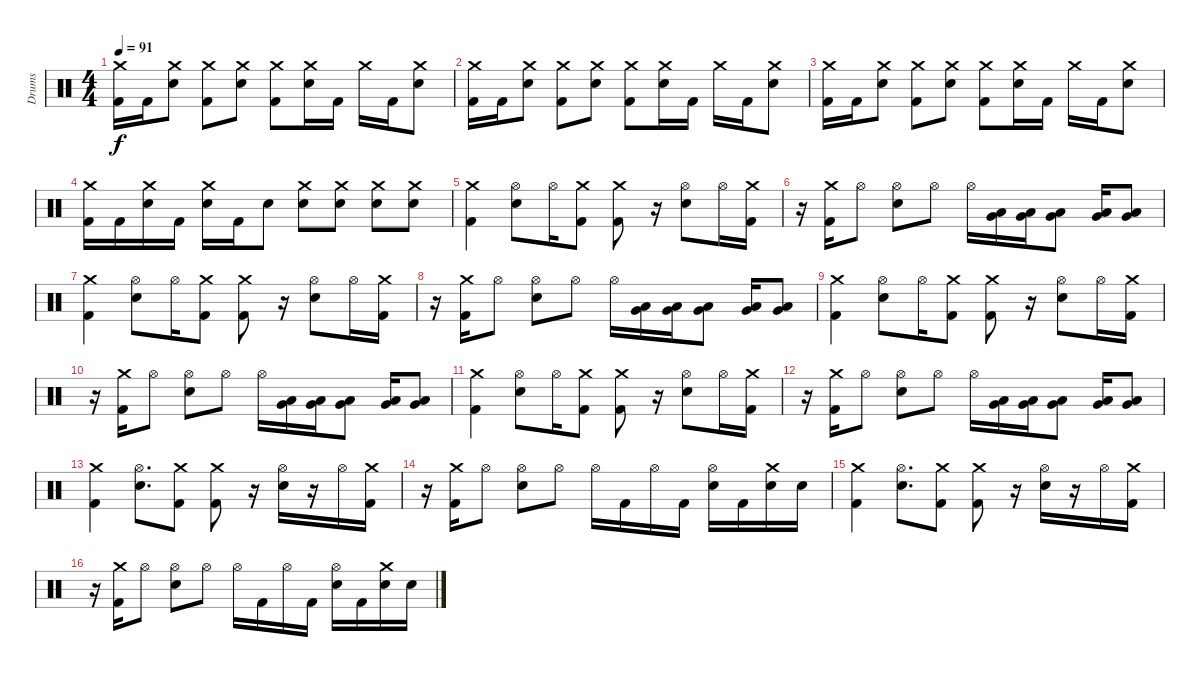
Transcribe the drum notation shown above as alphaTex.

\track ("Drums" "Drums") {instrument percussion}
\staff {score}
\articulation defaults
\ts (4 4)
\tempo 91
\clef neutral
\ks c
("Crash medium (hit)" "Kick (hit) 2").16{dy f} "Kick (hit) 2".16 ("Crash medium (hit)" "Snare (hit) 2").8 ("Crash medium (hit)" "Kick (hit) 2").8 ("Crash medium (hit)" "Snare (hit) 2").8 ("Crash medium (hit)" "Kick (hit) 2").8 ("Crash medium (hit)" "Snare (hit) 2").16 "Kick (hit) 2".16 "Crash medium (hit)".16 "Kick (hit) 2".16 ("Crash medium (hit)" "Snare (hit) 2").8 |
("Crash medium (hit)" "Kick (hit) 2").16 "Kick (hit) 2".16 ("Crash medium (hit)" "Snare (hit) 2").8 ("Crash medium (hit)" "Kick (hit) 2").8 ("Crash medium (hit)" "Snare (hit) 2").8 ("Crash medium (hit)" "Kick (hit) 2").8 ("Crash medium (hit)" "Snare (hit) 2").16 "Kick (hit) 2".16 "Crash medium (hit)".16 "Kick (hit) 2".16 ("Crash medium (hit)" "Snare (hit) 2").8 |
("Crash medium (hit)" "Kick (hit) 2").16 "Kick (hit) 2".16 ("Crash medium (hit)" "Snare (hit) 2").8 ("Crash medium (hit)" "Kick (hit) 2").8 ("Crash medium (hit)" "Snare (hit) 2").8 ("Crash medium (hit)" "Kick (hit) 2").8 ("Crash medium (hit)" "Snare (hit) 2").16 "Kick (hit) 2".16 "Crash medium (hit)".16 "Kick (hit) 2".16 ("Crash medium (hit)" "Snare (hit) 2").8 |
("Crash medium (hit)" "Kick (hit) 2").16 "Kick (hit) 2".16 ("Crash medium (hit)" "Snare (hit) 2").16 "Kick (hit) 2".16 ("Crash medium (hit)" "Snare (hit) 2").16 "Kick (hit) 2".16 "Snare (hit) 2".8 ("Crash medium (hit)" "Snare (hit) 2").8 ("Crash medium (hit)" "Snare (hit) 2").8 ("Crash medium (hit)" "Snare (hit) 2").8 ("Crash medium (hit)" "Snare (hit) 2").8 |
("Crash medium (hit)" "Kick (hit) 2").4 ("Hi-Hat (open)" "Snare (hit) 2").8 "Hi-Hat (open)".16 ("Crash medium (hit)" "Kick (hit) 2").8 ("Crash medium (hit)" "Kick (hit) 2").8 r.16 ("Hi-Hat (open)" "Snare (hit) 2").8 "Hi-Hat (open)".16 ("Crash medium (hit)" "Kick (hit) 2").16 |
r.16 ("Crash medium (hit)" "Kick (hit) 2").16 "Hi-Hat (open)".8 ("Hi-Hat (open)" "Snare (hit) 2").8 "Hi-Hat (open)".8 "Hi-Hat (open)".16 ("Low Tom (hit)" "Very Low Tom (hit)").16 ("Low Tom (hit)" "Very Low Tom (hit)").16 ("Low Tom (hit)" "Very Low Tom (hit)").8 ("Low Tom (hit)" "Very Low Tom (hit)").16 ("Low Tom (hit)" "Very Low Tom (hit)").8 |
("Crash medium (hit)" "Kick (hit) 2").4 ("Hi-Hat (open)" "Snare (hit) 2").8 "Hi-Hat (open)".16 ("Crash medium (hit)" "Kick (hit) 2").8 ("Crash medium (hit)" "Kick (hit) 2").8 r.16 ("Hi-Hat (open)" "Snare (hit) 2").8 "Hi-Hat (open)".16 ("Crash medium (hit)" "Kick (hit) 2").16 |
r.16 ("Crash medium (hit)" "Kick (hit) 2").16 "Hi-Hat (open)".8 ("Hi-Hat (open)" "Snare (hit) 2").8 "Hi-Hat (open)".8 "Hi-Hat (open)".16 ("Low Tom (hit)" "Very Low Tom (hit)").16 ("Low Tom (hit)" "Very Low Tom (hit)").16 ("Low Tom (hit)" "Very Low Tom (hit)").8 ("Low Tom (hit)" "Very Low Tom (hit)").16 ("Low Tom (hit)" "Very Low Tom (hit)").8 |
("Crash medium (hit)" "Kick (hit) 2").4 ("Hi-Hat (open)" "Snare (hit) 2").8 "Hi-Hat (open)".16 ("Crash medium (hit)" "Kick (hit) 2").8 ("Crash medium (hit)" "Kick (hit) 2").8 r.16 ("Hi-Hat (open)" "Snare (hit) 2").8 "Hi-Hat (open)".16 ("Crash medium (hit)" "Kick (hit) 2").16 |
r.16 ("Crash medium (hit)" "Kick (hit) 2").16 "Hi-Hat (open)".8 ("Hi-Hat (open)" "Snare (hit) 2").8 "Hi-Hat (open)".8 "Hi-Hat (open)".16 ("Low Tom (hit)" "Very Low Tom (hit)").16 ("Low Tom (hit)" "Very Low Tom (hit)").16 ("Low Tom (hit)" "Very Low Tom (hit)").8 ("Low Tom (hit)" "Very Low Tom (hit)").16 ("Low Tom (hit)" "Very Low Tom (hit)").8 |
("Crash medium (hit)" "Kick (hit) 2").4 ("Hi-Hat (open)" "Snare (hit) 2").8 "Hi-Hat (open)".16 ("Crash medium (hit)" "Kick (hit) 2").8 ("Crash medium (hit)" "Kick (hit) 2").8 r.16 ("Hi-Hat (open)" "Snare (hit) 2").8 "Hi-Hat (open)".16 ("Crash medium (hit)" "Kick (hit) 2").16 |
r.16 ("Crash medium (hit)" "Kick (hit) 2").16 "Hi-Hat (open)".8 ("Hi-Hat (open)" "Snare (hit) 2").8 "Hi-Hat (open)".8 "Hi-Hat (open)".16 ("Low Tom (hit)" "Very Low Tom (hit)").16 ("Low Tom (hit)" "Very Low Tom (hit)").16 ("Low Tom (hit)" "Very Low Tom (hit)").8 ("Low Tom (hit)" "Very Low Tom (hit)").16 ("Low Tom (hit)" "Very Low Tom (hit)").8 |
("Crash medium (hit)" "Kick (hit) 2").4 ("Hi-Hat (open)" "Snare (hit) 2").8{d} ("Crash medium (hit)" "Kick (hit) 2").8 ("Crash medium (hit)" "Kick (hit) 2").8 r.16 ("Hi-Hat (open)" "Snare (hit) 2").16 r.16 "Hi-Hat (open)".16 ("Crash medium (hit)" "Kick (hit) 2").16 |
r.16 ("Crash medium (hit)" "Kick (hit) 2").16 "Hi-Hat (open)".8 ("Hi-Hat (open)" "Snare (hit) 2").8 "Hi-Hat (open)".8 "Hi-Hat (open)".16 "Kick (hit) 2".16 "Hi-Hat (open)".16 "Kick (hit) 2".16 ("Hi-Hat (open)" "Snare (hit) 2").16 "Kick (hit) 2".16 ("Crash medium (hit)" "Snare (hit) 2").16 "Snare (hit) 2".16 |
("Crash medium (hit)" "Kick (hit) 2").4 ("Hi-Hat (open)" "Snare (hit) 2").8{d} ("Crash medium (hit)" "Kick (hit) 2").8 ("Crash medium (hit)" "Kick (hit) 2").8 r.16 ("Hi-Hat (open)" "Snare (hit) 2").16 r.16 "Hi-Hat (open)".16 ("Crash medium (hit)" "Kick (hit) 2").16 |
r.16 ("Crash medium (hit)" "Kick (hit) 2").16 "Hi-Hat (open)".8 ("Hi-Hat (open)" "Snare (hit) 2").8 "Hi-Hat (open)".8 "Hi-Hat (open)".16 "Kick (hit) 2".16 "Hi-Hat (open)".16 "Kick (hit) 2".16 ("Hi-Hat (open)" "Snare (hit) 2").16 "Kick (hit) 2".16 ("Crash medium (hit)" "Snare (hit) 2").16 "Snare (hit) 2".16
